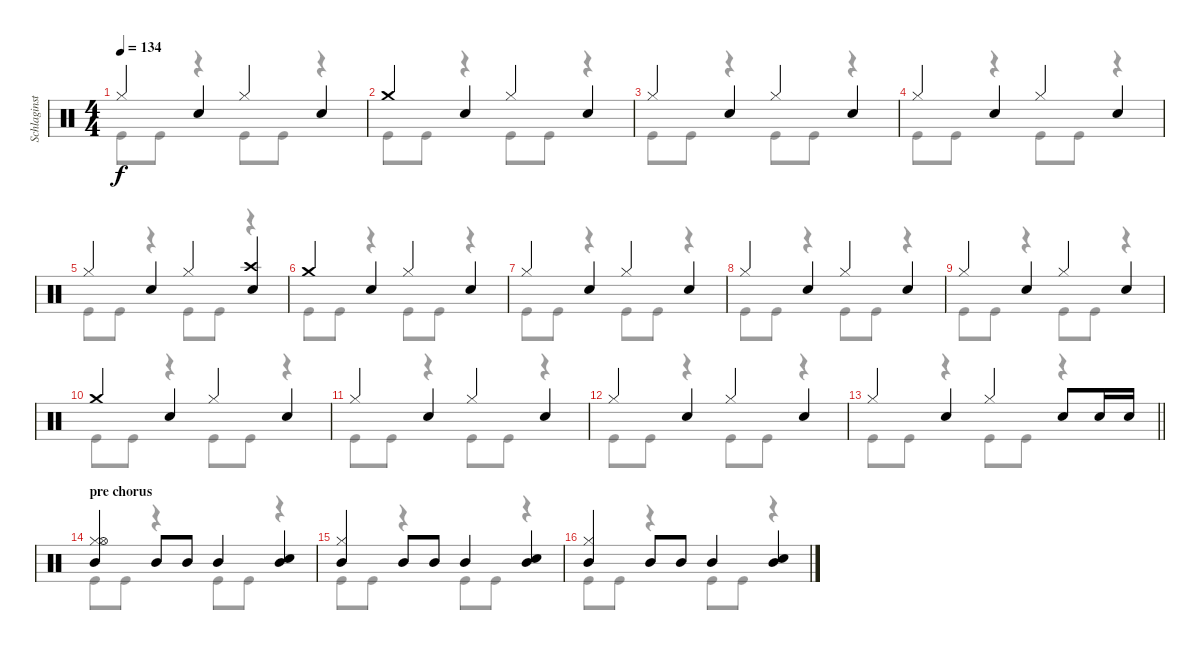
\track ("Schlaginstrumente - Auswahl" "Schlaginst") {instrument percussion}
\staff {score}
\articulation defaults
\voice
\ts (4 4)
\tempo 134
\clef neutral
\ks c "Hi-Hat (closed)".4{dy f} "Snare (hit) 2".4 "Hi-Hat (closed)".4 "Snare (hit) 2".4
|
"Crash medium (hit)".4 "Snare (hit) 2".4 "Hi-Hat (closed)".4 "Snare (hit) 2".4 |
"Hi-Hat (closed)".4 "Snare (hit) 2".4 "Hi-Hat (closed)".4 "Snare (hit) 2".4 |
"Hi-Hat (closed)".4 "Snare (hit) 2".4 "Hi-Hat (closed)".4 "Snare (hit) 2".4 |
"Hi-Hat (closed)".4 "Snare (hit) 2".4 "Hi-Hat (closed)".4 ("Snare (hit) 2" "Crash high (hit)").4 |
"Crash medium (hit)".4 "Snare (hit) 2".4 "Hi-Hat (closed)".4 "Snare (hit) 2".4 |
"Hi-Hat (closed)".4 "Snare (hit) 2".4 "Hi-Hat (closed)".4 "Snare (hit) 2".4 |
"Hi-Hat (closed)".4 "Snare (hit) 2".4 "Hi-Hat (closed)".4 "Snare (hit) 2".4 |
"Hi-Hat (closed)".4 "Snare (hit) 2".4 "Hi-Hat (closed)".4 "Snare (hit) 2".4 |
"Crash medium (hit)".4 "Snare (hit) 2".4 "Hi-Hat (closed)".4 "Snare (hit) 2".4 |
"Hi-Hat (closed)".4 "Snare (hit) 2".4 "Hi-Hat (closed)".4 "Snare (hit) 2".4 |
"Hi-Hat (closed)".4 "Snare (hit) 2".4 "Hi-Hat (closed)".4 "Snare (hit) 2".4 |
\barLineRight lightlight "Hi-Hat (closed)".4 "Snare (hit) 2".4 "Hi-Hat (closed)".4 "Snare (hit) 2".8 "Snare (hit) 2".16 "Snare (hit) 2".16
|
\section ("" "pre chorus")
("Mid Tom (hit)" "Hi-Hat (closed)" "Hi-Hat (open)").4 "Mid Tom (hit)".8 "Mid Tom (hit)".8 "Mid Tom (hit)".4 ("Mid Tom (hit)" "Snare (hit) 2").4 |
("Mid Tom (hit)" "Hi-Hat (closed)").4 "Mid Tom (hit)".8 "Mid Tom (hit)".8 "Mid Tom (hit)".4 ("Mid Tom (hit)" "Snare (hit) 2").4 |
("Mid Tom (hit)" "Hi-Hat (closed)").4 "Mid Tom (hit)".8 "Mid Tom (hit)".8 "Mid Tom (hit)".4 ("Mid Tom (hit)" "Snare (hit) 2").4
\voice
\clef neutral
\ottava regular
\simile none
\ks c "Kick (hit)".8{dy f} "Kick (hit)".8
r.4 "Kick (hit)".8 "Kick (hit)".8 r.4 |
"Kick (hit)".8 "Kick (hit)".8 r.4 "Kick (hit)".8 "Kick (hit)".8 r.4 |
"Kick (hit)".8 "Kick (hit)".8 r.4 "Kick (hit)".8 "Kick (hit)".8 r.4 |
"Kick (hit)".8 "Kick (hit)".8 r.4 "Kick (hit)".8 "Kick (hit)".8 r.4 |
"Kick (hit)".8 "Kick (hit)".8 r.4 "Kick (hit)".8 "Kick (hit)".8 r.4 |
"Kick (hit)".8 "Kick (hit)".8 r.4 "Kick (hit)".8 "Kick (hit)".8 r.4 |
"Kick (hit)".8 "Kick (hit)".8 r.4 "Kick (hit)".8 "Kick (hit)".8 r.4 |
"Kick (hit)".8 "Kick (hit)".8 r.4 "Kick (hit)".8 "Kick (hit)".8 r.4 |
"Kick (hit)".8 "Kick (hit)".8 r.4 "Kick (hit)".8 "Kick (hit)".8 r.4 |
"Kick (hit)".8 "Kick (hit)".8 r.4 "Kick (hit)".8 "Kick (hit)".8 r.4 |
"Kick (hit)".8 "Kick (hit)".8 r.4 "Kick (hit)".8 "Kick (hit)".8 r.4 |
"Kick (hit)".8 "Kick (hit)".8 r.4 "Kick (hit)".8 "Kick (hit)".8 r.4 |
\barLineRight lightlight "Kick (hit)".8 "Kick (hit)".8
r.4 "Kick (hit)".8 "Kick (hit)".8 r.4 |
"Kick (hit)".8 "Kick (hit)".8 r.4 "Kick (hit)".8 "Kick (hit)".8 r.4 |
"Kick (hit)".8 "Kick (hit)".8 r.4 "Kick (hit)".8 "Kick (hit)".8 r.4 |
"Kick (hit)".8 "Kick (hit)".8 r.4 "Kick (hit)".8 "Kick (hit)".8 r.4
